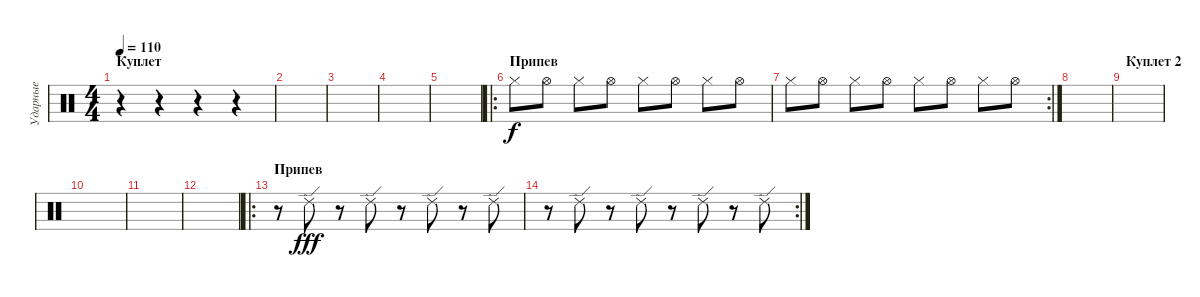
\track ("Ударные" "Ударные") {instrument percussion}
\staff {score}
\articulation defaults
\ts (4 4)
\section ("" "Куплет")
\tempo 110
\clef neutral
\ks c
r.4{dy f} r.4 r.4 r.4 |
|
|
|
|
\ro
\section ("" "Припев")
"Hi-Hat (closed)".8 "Hi-Hat (open)".8 "Hi-Hat (closed)".8 "Hi-Hat (open)".8 "Hi-Hat (closed)".8 "Hi-Hat (open)".8 "Hi-Hat (closed)".8 "Hi-Hat (open)".8 |
\rc 2 "Hi-Hat (closed)".8 "Hi-Hat (open)".8 "Hi-Hat (closed)".8 "Hi-Hat (open)".8 "Hi-Hat (closed)".8 "Hi-Hat (open)".8 "Hi-Hat (closed)".8 "Hi-Hat (open)".8
|
|
\section ("" "Куплет 2")
|
|
|
|
\ro
\section ("" "Припев")
r.8 "Ride (edge) 2".8{dy fff} r.8 "Ride (edge) 2".8 r.8 "Ride (edge) 2".8 r.8 "Ride (edge) 2".8 |
\rc 2
r.8 "Ride (edge) 2".8 r.8 "Ride (edge) 2".8 r.8 "Ride (edge) 2".8 r.8 "Ride (edge) 2".8
